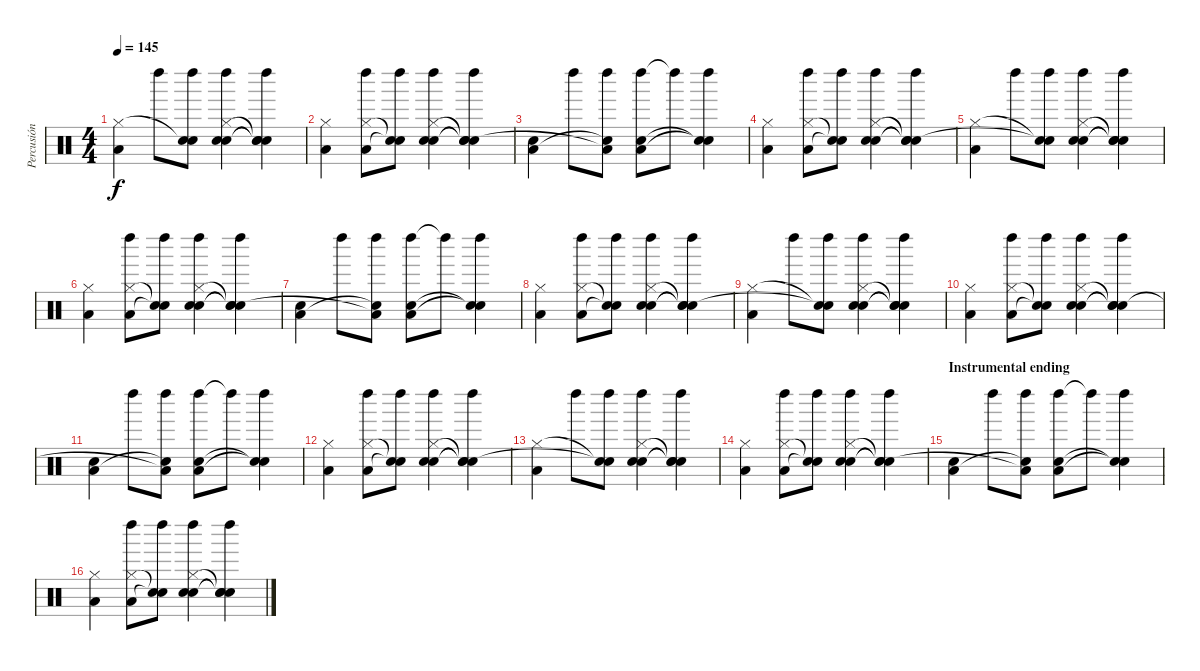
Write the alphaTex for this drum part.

\track ("Percusión" "Percusión") {instrument percussion}
\staff {score}
\articulation defaults
\ts (4 4)
\tempo 145
\clef neutral
\ks c
("Low Floor Tom (hit)" "Hi-Hat (closed)").4{dy f} "Left Maraca (hit)".8 ("Left Maraca (hit)" "Snare (hit)"{t} "Snare (hit)"{t}).8 ("Left Maraca (hit)" "Electric Snare (hit)" "Hi-Hat (closed)" "Snare (hit) 2").4 ("Left Maraca (hit)" "Snare (hit)"{t} "Snare (hit)"{t} "Snare (hit)"{t}).4 |
("Low Floor Tom (hit)" "Hi-Hat (closed)").4 ("Left Maraca (hit)" "Low Floor Tom (hit)" "Hi-Hat (closed)").8 ("Left Maraca (hit)" "Snare (hit)"{t} "Snare (hit)"{t}).8 ("Left Maraca (hit)" "Electric Snare (hit)" "Hi-Hat (closed)" "Snare (hit) 2").4 ("Left Maraca (hit)" "Snare (hit)"{t} "Snare (hit)"{t} "Snare (hit)"{t}).4 |
("Snare (hit) 2" "Low Floor Tom (hit)").4 "Left Maraca (hit)".8 ("Left Maraca (hit)" "Snare (hit)"{t} "Low Floor Tom (hit)"{t}).8 ("Left Maraca (hit)" "Snare (hit) 2" "Low Floor Tom (hit)").8 "Left Maraca (hit)"{t}.8 ("Left Maraca (hit)" "Snare (hit)"{t} "Snare (hit)"{t}).4 |
("Low Floor Tom (hit)" "Hi-Hat (closed)").4 ("Left Maraca (hit)" "Low Floor Tom (hit)" "Hi-Hat (closed)").8 ("Left Maraca (hit)" "Snare (hit)"{t} "Snare (hit)"{t}).8 ("Left Maraca (hit)" "Electric Snare (hit)" "Hi-Hat (closed)" "Snare (hit) 2").4 ("Left Maraca (hit)" "Snare (hit)"{t} "Snare (hit)"{t} "Snare (hit)"{t}).4 |
("Low Floor Tom (hit)" "Hi-Hat (closed)").4 "Left Maraca (hit)".8 ("Left Maraca (hit)" "Snare (hit)"{t} "Snare (hit)"{t}).8 ("Left Maraca (hit)" "Electric Snare (hit)" "Hi-Hat (closed)" "Snare (hit) 2").4 ("Left Maraca (hit)" "Snare (hit)"{t} "Snare (hit)"{t} "Snare (hit)"{t}).4 |
("Low Floor Tom (hit)" "Hi-Hat (closed)").4 ("Left Maraca (hit)" "Low Floor Tom (hit)" "Hi-Hat (closed)").8 ("Left Maraca (hit)" "Snare (hit)"{t} "Snare (hit)"{t}).8 ("Left Maraca (hit)" "Electric Snare (hit)" "Hi-Hat (closed)" "Snare (hit) 2").4 ("Left Maraca (hit)" "Snare (hit)"{t} "Snare (hit)"{t} "Snare (hit)"{t}).4 |
("Snare (hit) 2" "Low Floor Tom (hit)").4 "Left Maraca (hit)".8 ("Left Maraca (hit)" "Snare (hit)"{t} "Low Floor Tom (hit)"{t}).8 ("Left Maraca (hit)" "Snare (hit) 2" "Low Floor Tom (hit)").8 "Left Maraca (hit)"{t}.8 ("Left Maraca (hit)" "Snare (hit)"{t} "Snare (hit)"{t}).4 |
("Low Floor Tom (hit)" "Hi-Hat (closed)").4 ("Left Maraca (hit)" "Low Floor Tom (hit)" "Hi-Hat (closed)").8 ("Left Maraca (hit)" "Snare (hit)"{t} "Snare (hit)"{t}).8 ("Left Maraca (hit)" "Electric Snare (hit)" "Hi-Hat (closed)" "Snare (hit) 2").4 ("Left Maraca (hit)" "Snare (hit)"{t} "Snare (hit)"{t} "Snare (hit)"{t}).4 |
("Low Floor Tom (hit)" "Hi-Hat (closed)").4 "Left Maraca (hit)".8 ("Left Maraca (hit)" "Snare (hit)"{t} "Snare (hit)"{t}).8 ("Left Maraca (hit)" "Electric Snare (hit)" "Hi-Hat (closed)" "Snare (hit) 2").4 ("Left Maraca (hit)" "Snare (hit)"{t} "Snare (hit)"{t} "Snare (hit)"{t}).4 |
("Low Floor Tom (hit)" "Hi-Hat (closed)").4 ("Left Maraca (hit)" "Low Floor Tom (hit)" "Hi-Hat (closed)").8 ("Left Maraca (hit)" "Snare (hit)"{t} "Snare (hit)"{t}).8 ("Left Maraca (hit)" "Electric Snare (hit)" "Hi-Hat (closed)" "Snare (hit) 2").4 ("Left Maraca (hit)" "Snare (hit)"{t} "Snare (hit)"{t} "Snare (hit)"{t}).4 |
("Snare (hit) 2" "Low Floor Tom (hit)").4 "Left Maraca (hit)".8 ("Left Maraca (hit)" "Snare (hit)"{t} "Low Floor Tom (hit)"{t}).8 ("Left Maraca (hit)" "Snare (hit) 2" "Low Floor Tom (hit)").8 "Left Maraca (hit)"{t}.8 ("Left Maraca (hit)" "Snare (hit)"{t} "Snare (hit)"{t}).4 |
("Low Floor Tom (hit)" "Hi-Hat (closed)").4 ("Left Maraca (hit)" "Low Floor Tom (hit)" "Hi-Hat (closed)").8 ("Left Maraca (hit)" "Snare (hit)"{t} "Snare (hit)"{t}).8 ("Left Maraca (hit)" "Electric Snare (hit)" "Hi-Hat (closed)" "Snare (hit) 2").4 ("Left Maraca (hit)" "Snare (hit)"{t} "Snare (hit)"{t} "Snare (hit)"{t}).4 |
("Low Floor Tom (hit)" "Hi-Hat (closed)").4 "Left Maraca (hit)".8 ("Left Maraca (hit)" "Snare (hit)"{t} "Snare (hit)"{t}).8 ("Left Maraca (hit)" "Electric Snare (hit)" "Hi-Hat (closed)" "Snare (hit) 2").4 ("Left Maraca (hit)" "Snare (hit)"{t} "Snare (hit)"{t} "Snare (hit)"{t}).4 |
("Low Floor Tom (hit)" "Hi-Hat (closed)").4 ("Left Maraca (hit)" "Low Floor Tom (hit)" "Hi-Hat (closed)").8 ("Left Maraca (hit)" "Snare (hit)"{t} "Snare (hit)"{t}).8 ("Left Maraca (hit)" "Electric Snare (hit)" "Hi-Hat (closed)" "Snare (hit) 2").4 ("Left Maraca (hit)" "Snare (hit)"{t} "Snare (hit)"{t} "Snare (hit)"{t}).4 |
\section ("" "Instrumental ending")
("Snare (hit) 2" "Low Floor Tom (hit)").4 "Left Maraca (hit)".8 ("Left Maraca (hit)" "Snare (hit)"{t} "Low Floor Tom (hit)"{t}).8 ("Left Maraca (hit)" "Snare (hit) 2" "Low Floor Tom (hit)").8 "Left Maraca (hit)"{t}.8 ("Left Maraca (hit)" "Snare (hit)"{t} "Snare (hit)"{t}).4 |
("Low Floor Tom (hit)" "Hi-Hat (closed)").4 ("Left Maraca (hit)" "Low Floor Tom (hit)" "Hi-Hat (closed)").8 ("Left Maraca (hit)" "Snare (hit)"{t} "Snare (hit)"{t}).8 ("Left Maraca (hit)" "Electric Snare (hit)" "Hi-Hat (closed)" "Snare (hit) 2").4 ("Left Maraca (hit)" "Snare (hit)"{t} "Snare (hit)"{t} "Snare (hit)"{t}).4
